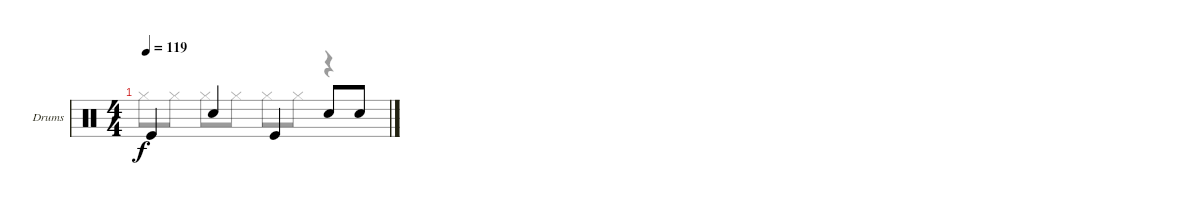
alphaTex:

\defaultSystemsLayout 4
\bracketExtendMode groupsimilarinstruments
\firstSystemTrackNameOrientation horizontal
\otherSystemsTrackNameOrientation horizontal
\track ("Drumkit" "Drums") {instrument percussion}
\staff {score}
\articulation defaults
\voice
\ts (4 4)
\tempo 119
\clef neutral
\ks c "Kick (hit)".4{dy f} "Snare (hit) 2".4 "Kick (hit)".4 "Snare (hit) 2".8 "Snare (hit) 2".8
\voice
\clef neutral
\ks c "Hi-Hat (closed)".8{dy f} "Hi-Hat (closed)".8 "Hi-Hat (closed)".8 "Hi-Hat (closed)".8 "Hi-Hat (closed)".8 "Hi-Hat (closed)".8
r.4
